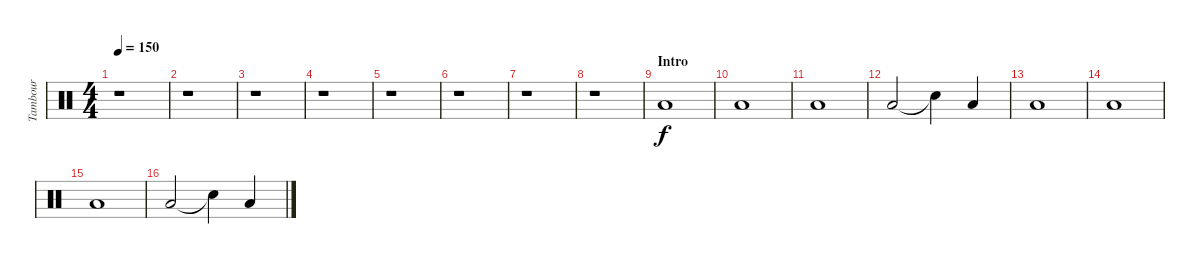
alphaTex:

\track ("Tambour" "Tambour") {instrument percussion}
\staff {score}
\articulation defaults
\ts (4 4)
\tempo 150
\clef neutral
\ks c
r.1{dy f} |
r.1 |
r.1 |
r.1 |
r.1 |
r.1 |
r.1 |
r.1 |
\section ("" "Intro")
"Low Tom (hit)".1 |
"Low Tom (hit)".1 |
"Low Tom (hit)".1 |
"Low Tom (hit)".2 "Snare (hit)"{t}.4 "Low Tom (hit)".4 |
"Low Tom (hit)".1 |
"Low Tom (hit)".1 |
"Low Tom (hit)".1 |
"Low Tom (hit)".2 "Snare (hit)"{t}.4 "Low Tom (hit)".4
